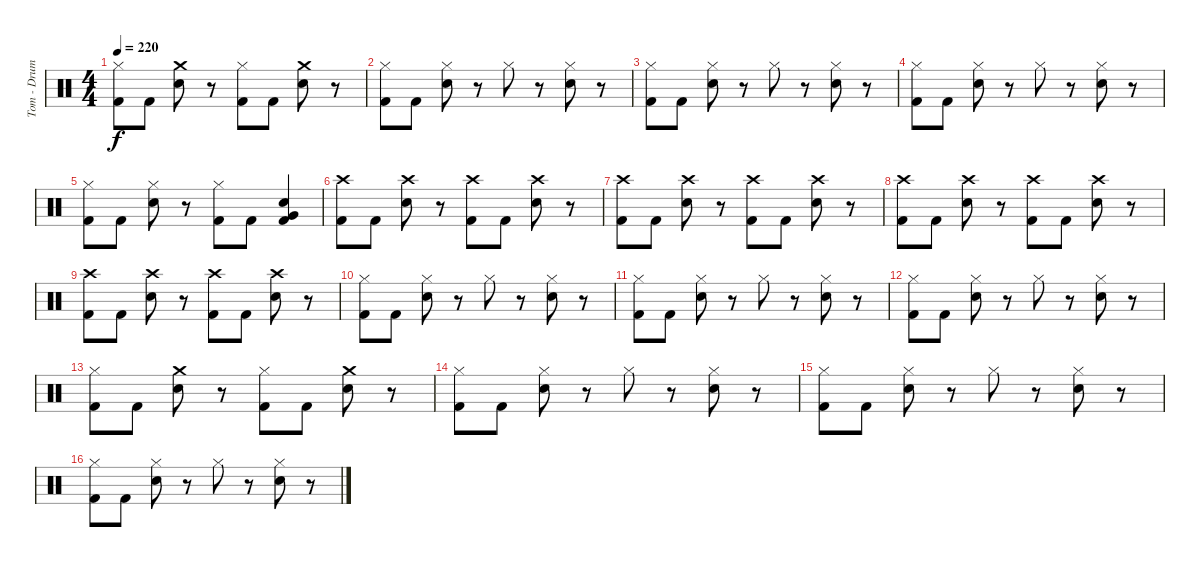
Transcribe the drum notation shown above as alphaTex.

\track ("Tom - Drums" "Tom - Drum") {instrument percussion}
\staff {score}
\articulation defaults
\ts (4 4)
\tempo 220
\clef neutral
\ks c
("Hi-Hat (closed)" "Kick (hit) 2").8{dy f} "Kick (hit) 2".8 ("Crash medium (hit)" "Electric Snare (hit)").8 r.8 ("Hi-Hat (closed)" "Kick (hit) 2").8 "Kick (hit) 2".8 ("Crash medium (hit)" "Electric Snare (hit)").8 r.8 |
("Hi-Hat (closed)" "Kick (hit) 2").8 "Kick (hit) 2".8 ("Hi-Hat (closed)" "Electric Snare (hit)").8 r.8 "Hi-Hat (closed)".8 r.8 ("Hi-Hat (closed)" "Electric Snare (hit)").8 r.8 |
("Hi-Hat (closed)" "Kick (hit) 2").8 "Kick (hit) 2".8 ("Hi-Hat (closed)" "Electric Snare (hit)").8 r.8 "Hi-Hat (closed)".8 r.8 ("Hi-Hat (closed)" "Electric Snare (hit)").8 r.8 |
("Hi-Hat (closed)" "Kick (hit) 2").8 "Kick (hit) 2".8 ("Hi-Hat (closed)" "Electric Snare (hit)").8 r.8 "Hi-Hat (closed)".8 r.8 ("Hi-Hat (closed)" "Electric Snare (hit)").8 r.8 |
("Hi-Hat (closed)" "Kick (hit) 2").8 "Kick (hit) 2".8 ("Hi-Hat (closed)" "Electric Snare (hit)").8 r.8 ("Hi-Hat (closed)" "Kick (hit) 2").8 "Kick (hit) 2".8 ("Very Low Tom (hit)" "Kick (hit) 2" "Electric Snare (hit)").4 |
("Crash high (hit)" "Kick (hit) 2").8 "Kick (hit) 2".8 ("Crash high (hit)" "Electric Snare (hit)").8 r.8 ("Crash high (hit)" "Kick (hit) 2").8 "Kick (hit) 2".8 ("Crash high (hit)" "Electric Snare (hit)").8 r.8 |
("Crash high (hit)" "Kick (hit) 2").8 "Kick (hit) 2".8 ("Crash high (hit)" "Electric Snare (hit)").8 r.8 ("Crash high (hit)" "Kick (hit) 2").8 "Kick (hit) 2".8 ("Crash high (hit)" "Electric Snare (hit)").8 r.8 |
("Crash high (hit)" "Kick (hit) 2").8 "Kick (hit) 2".8 ("Crash high (hit)" "Electric Snare (hit)").8 r.8 ("Crash high (hit)" "Kick (hit) 2").8 "Kick (hit) 2".8 ("Crash high (hit)" "Electric Snare (hit)").8 r.8 |
("Crash high (hit)" "Kick (hit) 2").8 "Kick (hit) 2".8 ("Crash high (hit)" "Electric Snare (hit)").8 r.8 ("Crash high (hit)" "Kick (hit) 2").8 "Kick (hit) 2".8 ("Crash high (hit)" "Electric Snare (hit)").8 r.8 |
("Hi-Hat (closed)" "Kick (hit) 2").8 "Kick (hit) 2".8 ("Hi-Hat (closed)" "Electric Snare (hit)").8 r.8 "Hi-Hat (closed)".8 r.8 ("Hi-Hat (closed)" "Electric Snare (hit)").8 r.8 |
("Hi-Hat (closed)" "Kick (hit) 2").8 "Kick (hit) 2".8 ("Hi-Hat (closed)" "Electric Snare (hit)").8 r.8 "Hi-Hat (closed)".8 r.8 ("Hi-Hat (closed)" "Electric Snare (hit)").8 r.8 |
("Hi-Hat (closed)" "Kick (hit) 2").8 "Kick (hit) 2".8 ("Hi-Hat (closed)" "Electric Snare (hit)").8 r.8 "Hi-Hat (closed)".8 r.8 ("Hi-Hat (closed)" "Electric Snare (hit)").8 r.8 |
("Hi-Hat (closed)" "Kick (hit) 2").8 "Kick (hit) 2".8 ("Crash medium (hit)" "Electric Snare (hit)").8 r.8 ("Hi-Hat (closed)" "Kick (hit) 2").8 "Kick (hit) 2".8 ("Crash medium (hit)" "Electric Snare (hit)").8 r.8 |
("Hi-Hat (closed)" "Kick (hit) 2").8 "Kick (hit) 2".8 ("Hi-Hat (closed)" "Electric Snare (hit)").8 r.8 "Hi-Hat (closed)".8 r.8 ("Hi-Hat (closed)" "Electric Snare (hit)").8 r.8 |
("Hi-Hat (closed)" "Kick (hit) 2").8 "Kick (hit) 2".8 ("Hi-Hat (closed)" "Electric Snare (hit)").8 r.8 "Hi-Hat (closed)".8 r.8 ("Hi-Hat (closed)" "Electric Snare (hit)").8 r.8 |
("Hi-Hat (closed)" "Kick (hit) 2").8 "Kick (hit) 2".8 ("Hi-Hat (closed)" "Electric Snare (hit)").8 r.8 "Hi-Hat (closed)".8 r.8 ("Hi-Hat (closed)" "Electric Snare (hit)").8 r.8
